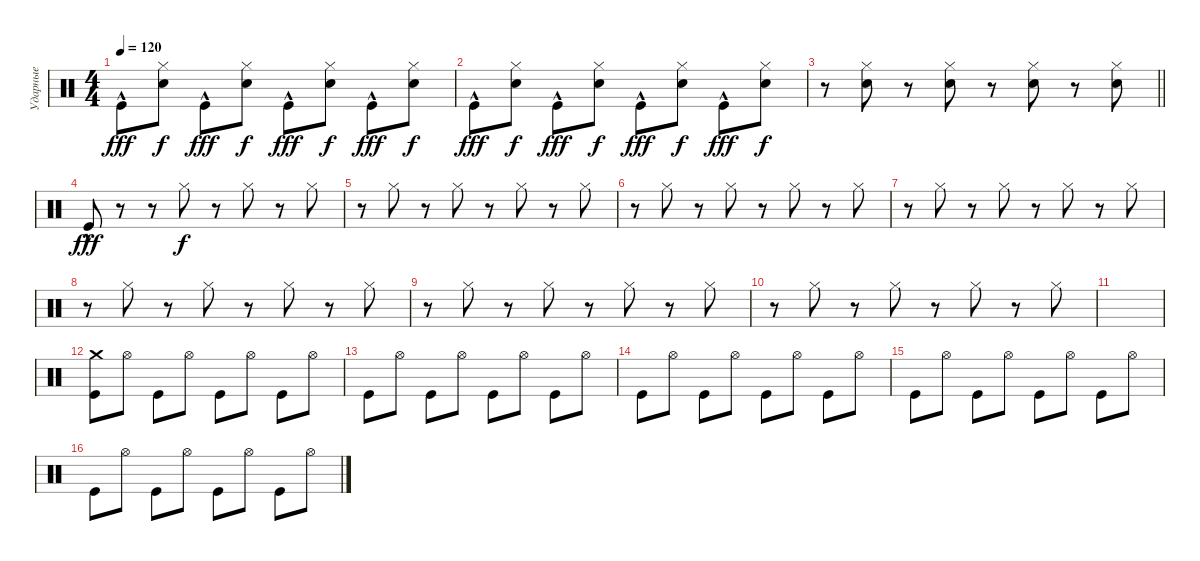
\track ("Ударные" "Ударные") {instrument percussion}
\staff {score}
\articulation defaults
\ts (4 4)
\tempo 120
\clef neutral
\ks c "Kick (hit)"{hac}.8{dy fff}
("Hand Clap (hit)" "Hi-Hat (closed)").8{dy f} "Kick (hit)"{hac}.8{dy fff} ("Hand Clap (hit)" "Hi-Hat (closed)").8{dy f} "Kick (hit)"{hac}.8{dy fff} ("Hand Clap (hit)" "Hi-Hat (closed)").8{dy f} "Kick (hit)"{hac}.8{dy fff} ("Hand Clap (hit)" "Hi-Hat (closed)").8{dy f} |
"Kick (hit)"{hac}.8{dy fff} ("Hand Clap (hit)" "Hi-Hat (closed)").8{dy f} "Kick (hit)"{hac}.8{dy fff} ("Hand Clap (hit)" "Hi-Hat (closed)").8{dy f} "Kick (hit)"{hac}.8{dy fff} ("Hand Clap (hit)" "Hi-Hat (closed)").8{dy f} "Kick (hit)"{hac}.8{dy fff} ("Hand Clap (hit)" "Hi-Hat (closed)").8{dy f} |
\barLineRight lightlight
r.8 ("Hand Clap (hit)" "Hi-Hat (closed)").8 r.8 ("Hand Clap (hit)" "Hi-Hat (closed)").8 r.8 ("Hand Clap (hit)" "Hi-Hat (closed)").8 r.8 ("Hand Clap (hit)" "Hi-Hat (closed)").8 |
"Kick (hit)"{hac}.8{dy fff} r.8 r.8 "Hi-Hat (closed)".8{dy f} r.8 "Hi-Hat (closed)".8 r.8 "Hi-Hat (closed)".8 |
r.8 "Hi-Hat (closed)".8 r.8 "Hi-Hat (closed)".8 r.8 "Hi-Hat (closed)".8 r.8 "Hi-Hat (closed)".8 |
r.8 "Hi-Hat (closed)".8 r.8 "Hi-Hat (closed)".8 r.8 "Hi-Hat (closed)".8 r.8 "Hi-Hat (closed)".8 |
r.8 "Hi-Hat (closed)".8 r.8 "Hi-Hat (closed)".8 r.8 "Hi-Hat (closed)".8 r.8 "Hi-Hat (closed)".8 |
r.8 "Hi-Hat (closed)".8 r.8 "Hi-Hat (closed)".8 r.8 "Hi-Hat (closed)".8 r.8 "Hi-Hat (closed)".8 |
r.8 "Hi-Hat (closed)".8 r.8 "Hi-Hat (closed)".8 r.8 "Hi-Hat (closed)".8 r.8 "Hi-Hat (closed)".8 |
r.8 "Hi-Hat (closed)".8 r.8 "Hi-Hat (closed)".8 r.8 "Hi-Hat (closed)".8 r.8 "Hi-Hat (closed)".8 |
|
("Kick (hit)" "Crash medium (hit)").8 "Hi-Hat (open)".8 "Kick (hit)".8 "Hi-Hat (open)".8 "Kick (hit)".8 "Hi-Hat (open)".8 "Kick (hit)".8 "Hi-Hat (open)".8 |
"Kick (hit)".8 "Hi-Hat (open)".8 "Kick (hit)".8 "Hi-Hat (open)".8 "Kick (hit)".8 "Hi-Hat (open)".8 "Kick (hit)".8 "Hi-Hat (open)".8 |
"Kick (hit)".8 "Hi-Hat (open)".8 "Kick (hit)".8 "Hi-Hat (open)".8 "Kick (hit)".8 "Hi-Hat (open)".8 "Kick (hit)".8 "Hi-Hat (open)".8 |
"Kick (hit)".8 "Hi-Hat (open)".8 "Kick (hit)".8 "Hi-Hat (open)".8 "Kick (hit)".8 "Hi-Hat (open)".8 "Kick (hit)".8 "Hi-Hat (open)".8 |
"Kick (hit)".8 "Hi-Hat (open)".8 "Kick (hit)".8 "Hi-Hat (open)".8 "Kick (hit)".8 "Hi-Hat (open)".8 "Kick (hit)".8 "Hi-Hat (open)".8
